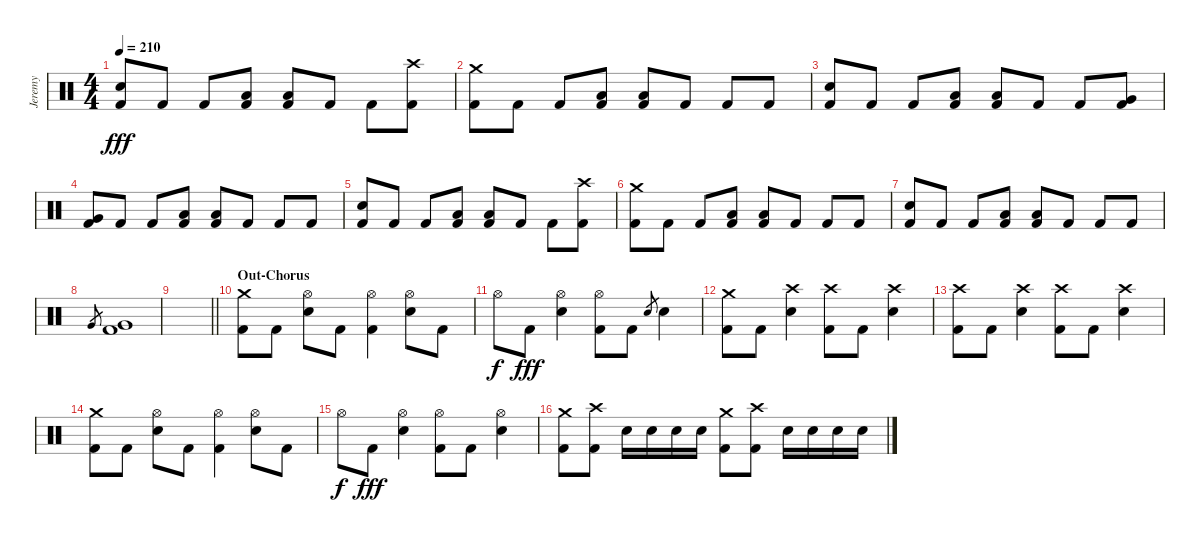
\track ("Jeremy" "Jeremy") {instrument percussion}
\staff {score}
\articulation defaults
\ts (4 4)
\tempo 210
\clef neutral
\ks c
("Electric Snare (hit)" "Kick (hit) 2").8{dy fff} "Kick (hit) 2".8 "Kick (hit) 2".8 ("Low Tom (hit)" "Kick (hit) 2").8 ("Low Tom (hit)" "Kick (hit) 2").8 "Kick (hit) 2".8 "Kick (hit) 2".8 ("Crash high (hit)" "Kick (hit) 2").8 |
("Crash medium (hit)" "Kick (hit) 2").8 "Kick (hit) 2".8 "Kick (hit) 2".8 ("Low Floor Tom (hit)" "Kick (hit) 2").8 ("Low Floor Tom (hit)" "Kick (hit) 2").8 "Kick (hit) 2".8 "Kick (hit) 2".8 "Kick (hit) 2".8 |
("Electric Snare (hit)" "Kick (hit) 2").8 "Kick (hit) 2".8 "Kick (hit) 2".8 ("Low Tom (hit)" "Kick (hit) 2").8 ("Low Tom (hit)" "Kick (hit) 2").8 "Kick (hit) 2".8 "Kick (hit) 2".8 ("Very Low Tom (hit)" "Kick (hit) 2").8 |
("Very Low Tom (hit)" "Kick (hit) 2").8 "Kick (hit) 2".8 "Kick (hit) 2".8 ("Low Floor Tom (hit)" "Kick (hit) 2").8 ("Low Floor Tom (hit)" "Kick (hit) 2").8 "Kick (hit) 2".8 "Kick (hit) 2".8 "Kick (hit) 2".8 |
("Electric Snare (hit)" "Kick (hit) 2").8 "Kick (hit) 2".8 "Kick (hit) 2".8 ("Low Tom (hit)" "Kick (hit) 2").8 ("Low Tom (hit)" "Kick (hit) 2").8 "Kick (hit) 2".8 "Kick (hit) 2".8 ("Crash high (hit)" "Kick (hit) 2").8 |
("Crash medium (hit)" "Kick (hit) 2").8 "Kick (hit) 2".8 "Kick (hit) 2".8 ("Low Floor Tom (hit)" "Kick (hit) 2").8 ("Low Floor Tom (hit)" "Kick (hit) 2").8 "Kick (hit) 2".8 "Kick (hit) 2".8 "Kick (hit) 2".8 |
("Electric Snare (hit)" "Kick (hit) 2").8 "Kick (hit) 2".8 "Kick (hit) 2".8 ("Low Tom (hit)" "Kick (hit) 2").8 ("Low Tom (hit)" "Kick (hit) 2").8 "Kick (hit) 2".8 "Kick (hit) 2".8 "Kick (hit) 2".8 |
"Very Low Tom (hit)".8{gr} ("Very Low Tom (hit)" "Kick (hit) 2").1 |
\barLineRight lightlight
|
\section ("" "Out-Chorus")
("Crash medium (hit)" "Kick (hit) 2").8 "Kick (hit) 2".8 ("Hi-Hat (open)" "Electric Snare (hit)").8 "Kick (hit) 2".8 ("Hi-Hat (open)" "Kick (hit) 2").4 ("Hi-Hat (open)" "Electric Snare (hit)").8 "Kick (hit) 2".8 |
"Hi-Hat (open)".8{dy f} "Kick (hit) 2".8{dy fff} ("Hi-Hat (open)" "Electric Snare (hit)").4 ("Hi-Hat (open)" "Kick (hit) 2").8 "Kick (hit) 2".8 "Electric Snare (hit)".8{gr} "Electric Snare (hit)".4 |
("Crash medium (hit)" "Kick (hit) 2").8 "Kick (hit) 2".8 ("Crash high (hit)" "Electric Snare (hit)").4 ("Crash high (hit)" "Kick (hit) 2").8 "Kick (hit) 2".8 ("Crash high (hit)" "Electric Snare (hit)").4 |
("Crash high (hit)" "Kick (hit) 2").8 "Kick (hit) 2".8 ("Crash high (hit)" "Electric Snare (hit)").4 ("Crash high (hit)" "Kick (hit) 2").8 "Kick (hit) 2".8 ("Crash high (hit)" "Electric Snare (hit)").4 |
("Crash medium (hit)" "Kick (hit) 2").8 "Kick (hit) 2".8 ("Hi-Hat (open)" "Electric Snare (hit)").8 "Kick (hit) 2".8 ("Hi-Hat (open)" "Kick (hit) 2").4 ("Hi-Hat (open)" "Electric Snare (hit)").8 "Kick (hit) 2".8 |
"Hi-Hat (open)".8{dy f} "Kick (hit) 2".8{dy fff} ("Hi-Hat (open)" "Electric Snare (hit)").4 ("Hi-Hat (open)" "Kick (hit) 2").8 "Kick (hit) 2".8 ("Hi-Hat (open)" "Electric Snare (hit)").4 |
("Crash medium (hit)" "Kick (hit) 2").8 ("Crash high (hit)" "Kick (hit) 2").8 "Electric Snare (hit)".16 "Electric Snare (hit)".16 "Electric Snare (hit)".16 "Electric Snare (hit)".16 ("Crash medium (hit)" "Kick (hit) 2").8 ("Crash high (hit)" "Kick (hit) 2").8 "Electric Snare (hit)".16 "Electric Snare (hit)".16 "Electric Snare (hit)".16 "Electric Snare (hit)".16
